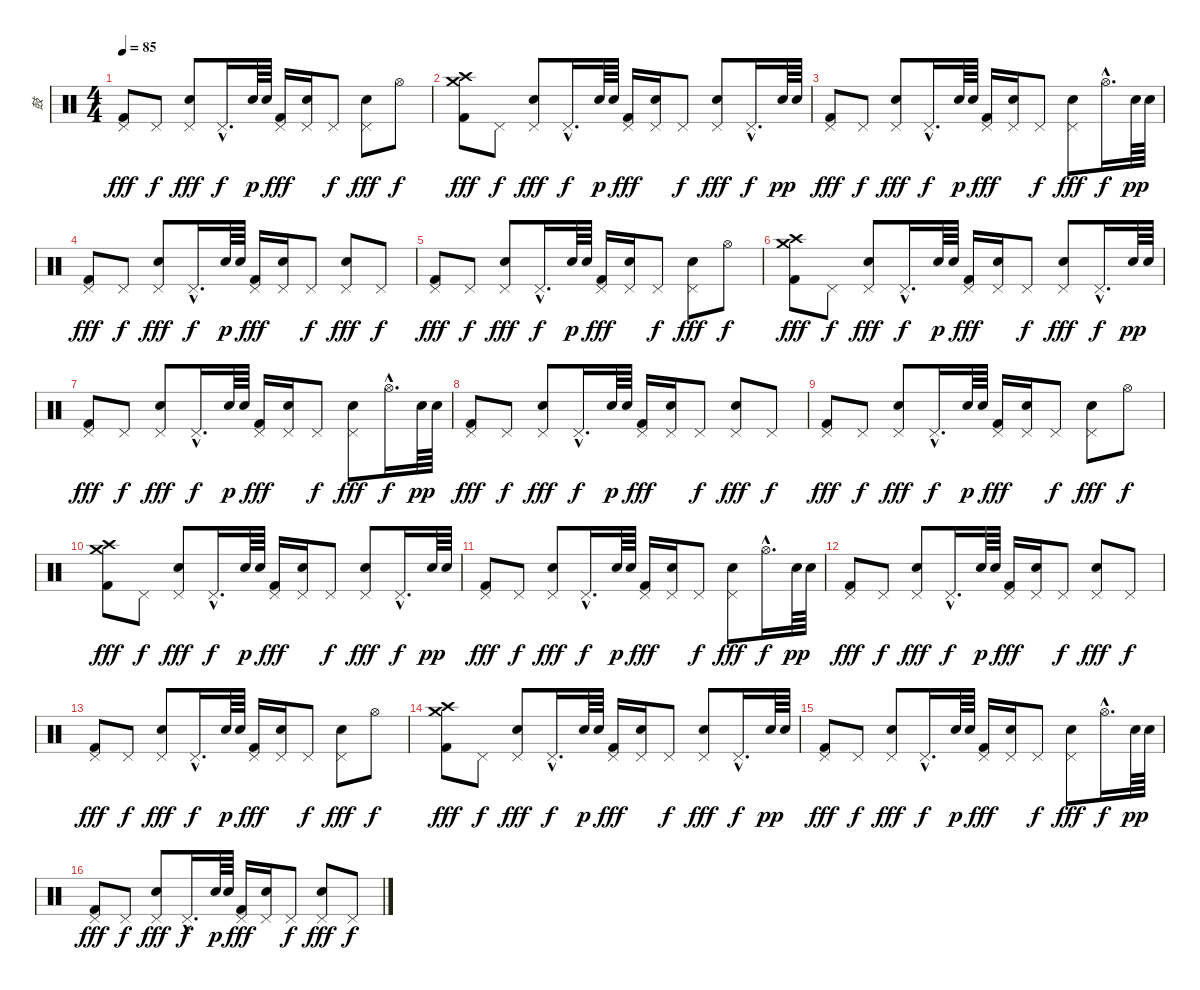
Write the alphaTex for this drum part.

\track ("鼓" "鼓") {instrument percussion}
\staff {score}
\articulation defaults
\ts (4 4)
\tempo 85
\clef neutral
\ks c
("Pedal Hi-Hat (hit)" "Kick (hit) 2").8{dy fff} "Pedal Hi-Hat (hit)".8{dy f} ("Pedal Hi-Hat (hit)" "Snare (hit) 2").8{dy fff} "Pedal Hi-Hat (hit)"{hac}.16{d dy f} "Snare (hit) 2".64{dy p} "Snare (hit) 2".64 ("Pedal Hi-Hat (hit)" "Kick (hit) 2").16{dy fff} ("Pedal Hi-Hat (hit)" "Snare (hit) 2").16 "Pedal Hi-Hat (hit)".8{dy f} ("Pedal Hi-Hat (hit)" "Snare (hit) 2").8{dy fff} "Hi-Hat (open)".8{dy f} |
("Crash high (hit)" "Crash medium (hit)" "Kick (hit) 2").8{dy fff} "Pedal Hi-Hat (hit)".8{dy f} ("Pedal Hi-Hat (hit)" "Snare (hit) 2").8{dy fff} "Pedal Hi-Hat (hit)"{hac}.16{d dy f} "Snare (hit) 2".64{dy p} "Snare (hit) 2".64 ("Pedal Hi-Hat (hit)" "Kick (hit) 2").16{dy fff} ("Pedal Hi-Hat (hit)" "Snare (hit) 2").16 "Pedal Hi-Hat (hit)".8{dy f} ("Pedal Hi-Hat (hit)" "Snare (hit) 2").8{dy fff} "Pedal Hi-Hat (hit)"{hac}.16{d dy f} "Snare (hit) 2".64{dy pp} "Snare (hit) 2".64 |
("Pedal Hi-Hat (hit)" "Kick (hit) 2").8{dy fff} "Pedal Hi-Hat (hit)".8{dy f} ("Pedal Hi-Hat (hit)" "Snare (hit) 2").8{dy fff} "Pedal Hi-Hat (hit)"{hac}.16{d dy f} "Snare (hit) 2".64{dy p} "Snare (hit) 2".64 ("Pedal Hi-Hat (hit)" "Kick (hit) 2").16{dy fff} ("Pedal Hi-Hat (hit)" "Snare (hit) 2").16 "Pedal Hi-Hat (hit)".8{dy f} ("Pedal Hi-Hat (hit)" "Snare (hit) 2").8{dy fff} "Hi-Hat (open)"{hac}.16{d dy f} "Snare (hit) 2".64{dy pp} "Snare (hit) 2".64 |
("Pedal Hi-Hat (hit)" "Kick (hit) 2").8{dy fff} "Pedal Hi-Hat (hit)".8{dy f} ("Pedal Hi-Hat (hit)" "Snare (hit) 2").8{dy fff} "Pedal Hi-Hat (hit)"{hac}.16{d dy f} "Snare (hit) 2".64{dy p} "Snare (hit) 2".64 ("Pedal Hi-Hat (hit)" "Kick (hit) 2").16{dy fff} ("Pedal Hi-Hat (hit)" "Snare (hit) 2").16 "Pedal Hi-Hat (hit)".8{dy f} ("Pedal Hi-Hat (hit)" "Snare (hit) 2").8{dy fff} "Pedal Hi-Hat (hit)".8{dy f} |
("Pedal Hi-Hat (hit)" "Kick (hit) 2").8{dy fff} "Pedal Hi-Hat (hit)".8{dy f} ("Pedal Hi-Hat (hit)" "Snare (hit) 2").8{dy fff} "Pedal Hi-Hat (hit)"{hac}.16{d dy f} "Snare (hit) 2".64{dy p} "Snare (hit) 2".64 ("Pedal Hi-Hat (hit)" "Kick (hit) 2").16{dy fff} ("Pedal Hi-Hat (hit)" "Snare (hit) 2").16 "Pedal Hi-Hat (hit)".8{dy f} ("Pedal Hi-Hat (hit)" "Snare (hit) 2").8{dy fff} "Hi-Hat (open)".8{dy f} |
("Crash high (hit)" "Crash medium (hit)" "Kick (hit) 2").8{dy fff} "Pedal Hi-Hat (hit)".8{dy f} ("Pedal Hi-Hat (hit)" "Snare (hit) 2").8{dy fff} "Pedal Hi-Hat (hit)"{hac}.16{d dy f} "Snare (hit) 2".64{dy p} "Snare (hit) 2".64 ("Pedal Hi-Hat (hit)" "Kick (hit) 2").16{dy fff} ("Pedal Hi-Hat (hit)" "Snare (hit) 2").16 "Pedal Hi-Hat (hit)".8{dy f} ("Pedal Hi-Hat (hit)" "Snare (hit) 2").8{dy fff} "Pedal Hi-Hat (hit)"{hac}.16{d dy f} "Snare (hit) 2".64{dy pp} "Snare (hit) 2".64 |
("Pedal Hi-Hat (hit)" "Kick (hit) 2").8{dy fff} "Pedal Hi-Hat (hit)".8{dy f} ("Pedal Hi-Hat (hit)" "Snare (hit) 2").8{dy fff} "Pedal Hi-Hat (hit)"{hac}.16{d dy f} "Snare (hit) 2".64{dy p} "Snare (hit) 2".64 ("Pedal Hi-Hat (hit)" "Kick (hit) 2").16{dy fff} ("Pedal Hi-Hat (hit)" "Snare (hit) 2").16 "Pedal Hi-Hat (hit)".8{dy f} ("Pedal Hi-Hat (hit)" "Snare (hit) 2").8{dy fff} "Hi-Hat (open)"{hac}.16{d dy f} "Snare (hit) 2".64{dy pp} "Snare (hit) 2".64 |
("Pedal Hi-Hat (hit)" "Kick (hit) 2").8{dy fff} "Pedal Hi-Hat (hit)".8{dy f} ("Pedal Hi-Hat (hit)" "Snare (hit) 2").8{dy fff} "Pedal Hi-Hat (hit)"{hac}.16{d dy f} "Snare (hit) 2".64{dy p} "Snare (hit) 2".64 ("Pedal Hi-Hat (hit)" "Kick (hit) 2").16{dy fff} ("Pedal Hi-Hat (hit)" "Snare (hit) 2").16 "Pedal Hi-Hat (hit)".8{dy f} ("Pedal Hi-Hat (hit)" "Snare (hit) 2").8{dy fff} "Pedal Hi-Hat (hit)".8{dy f} |
("Pedal Hi-Hat (hit)" "Kick (hit) 2").8{dy fff} "Pedal Hi-Hat (hit)".8{dy f} ("Pedal Hi-Hat (hit)" "Snare (hit) 2").8{dy fff} "Pedal Hi-Hat (hit)"{hac}.16{d dy f} "Snare (hit) 2".64{dy p} "Snare (hit) 2".64 ("Pedal Hi-Hat (hit)" "Kick (hit) 2").16{dy fff} ("Pedal Hi-Hat (hit)" "Snare (hit) 2").16 "Pedal Hi-Hat (hit)".8{dy f} ("Pedal Hi-Hat (hit)" "Snare (hit) 2").8{dy fff} "Hi-Hat (open)".8{dy f} |
("Crash high (hit)" "Crash medium (hit)" "Kick (hit) 2").8{dy fff} "Pedal Hi-Hat (hit)".8{dy f} ("Pedal Hi-Hat (hit)" "Snare (hit) 2").8{dy fff} "Pedal Hi-Hat (hit)"{hac}.16{d dy f} "Snare (hit) 2".64{dy p} "Snare (hit) 2".64 ("Pedal Hi-Hat (hit)" "Kick (hit) 2").16{dy fff} ("Pedal Hi-Hat (hit)" "Snare (hit) 2").16 "Pedal Hi-Hat (hit)".8{dy f} ("Pedal Hi-Hat (hit)" "Snare (hit) 2").8{dy fff} "Pedal Hi-Hat (hit)"{hac}.16{d dy f} "Snare (hit) 2".64{dy pp} "Snare (hit) 2".64 |
("Pedal Hi-Hat (hit)" "Kick (hit) 2").8{dy fff} "Pedal Hi-Hat (hit)".8{dy f} ("Pedal Hi-Hat (hit)" "Snare (hit) 2").8{dy fff} "Pedal Hi-Hat (hit)"{hac}.16{d dy f} "Snare (hit) 2".64{dy p} "Snare (hit) 2".64 ("Pedal Hi-Hat (hit)" "Kick (hit) 2").16{dy fff} ("Pedal Hi-Hat (hit)" "Snare (hit) 2").16 "Pedal Hi-Hat (hit)".8{dy f} ("Pedal Hi-Hat (hit)" "Snare (hit) 2").8{dy fff} "Hi-Hat (open)"{hac}.16{d dy f} "Snare (hit) 2".64{dy pp} "Snare (hit) 2".64 |
("Pedal Hi-Hat (hit)" "Kick (hit) 2").8{dy fff} "Pedal Hi-Hat (hit)".8{dy f} ("Pedal Hi-Hat (hit)" "Snare (hit) 2").8{dy fff} "Pedal Hi-Hat (hit)"{hac}.16{d dy f} "Snare (hit) 2".64{dy p} "Snare (hit) 2".64 ("Pedal Hi-Hat (hit)" "Kick (hit) 2").16{dy fff} ("Pedal Hi-Hat (hit)" "Snare (hit) 2").16 "Pedal Hi-Hat (hit)".8{dy f} ("Pedal Hi-Hat (hit)" "Snare (hit) 2").8{dy fff} "Pedal Hi-Hat (hit)".8{dy f} |
("Pedal Hi-Hat (hit)" "Kick (hit) 2").8{dy fff} "Pedal Hi-Hat (hit)".8{dy f} ("Pedal Hi-Hat (hit)" "Snare (hit) 2").8{dy fff} "Pedal Hi-Hat (hit)"{hac}.16{d dy f} "Snare (hit) 2".64{dy p} "Snare (hit) 2".64 ("Pedal Hi-Hat (hit)" "Kick (hit) 2").16{dy fff} ("Pedal Hi-Hat (hit)" "Snare (hit) 2").16 "Pedal Hi-Hat (hit)".8{dy f} ("Pedal Hi-Hat (hit)" "Snare (hit) 2").8{dy fff} "Hi-Hat (open)".8{dy f} |
("Crash high (hit)" "Crash medium (hit)" "Kick (hit) 2").8{dy fff} "Pedal Hi-Hat (hit)".8{dy f} ("Pedal Hi-Hat (hit)" "Snare (hit) 2").8{dy fff} "Pedal Hi-Hat (hit)"{hac}.16{d dy f} "Snare (hit) 2".64{dy p} "Snare (hit) 2".64 ("Pedal Hi-Hat (hit)" "Kick (hit) 2").16{dy fff} ("Pedal Hi-Hat (hit)" "Snare (hit) 2").16 "Pedal Hi-Hat (hit)".8{dy f} ("Pedal Hi-Hat (hit)" "Snare (hit) 2").8{dy fff} "Pedal Hi-Hat (hit)"{hac}.16{d dy f} "Snare (hit) 2".64{dy pp} "Snare (hit) 2".64 |
("Pedal Hi-Hat (hit)" "Kick (hit) 2").8{dy fff} "Pedal Hi-Hat (hit)".8{dy f} ("Pedal Hi-Hat (hit)" "Snare (hit) 2").8{dy fff} "Pedal Hi-Hat (hit)"{hac}.16{d dy f} "Snare (hit) 2".64{dy p} "Snare (hit) 2".64 ("Pedal Hi-Hat (hit)" "Kick (hit) 2").16{dy fff} ("Pedal Hi-Hat (hit)" "Snare (hit) 2").16 "Pedal Hi-Hat (hit)".8{dy f} ("Pedal Hi-Hat (hit)" "Snare (hit) 2").8{dy fff} "Hi-Hat (open)"{hac}.16{d dy f} "Snare (hit) 2".64{dy pp} "Snare (hit) 2".64 |
("Pedal Hi-Hat (hit)" "Kick (hit) 2").8{dy fff} "Pedal Hi-Hat (hit)".8{dy f} ("Pedal Hi-Hat (hit)" "Snare (hit) 2").8{dy fff} "Pedal Hi-Hat (hit)"{hac}.16{d dy f} "Snare (hit) 2".64{dy p} "Snare (hit) 2".64 ("Pedal Hi-Hat (hit)" "Kick (hit) 2").16{dy fff} ("Pedal Hi-Hat (hit)" "Snare (hit) 2").16 "Pedal Hi-Hat (hit)".8{dy f} ("Pedal Hi-Hat (hit)" "Snare (hit) 2").8{dy fff} "Pedal Hi-Hat (hit)".8{dy f}
